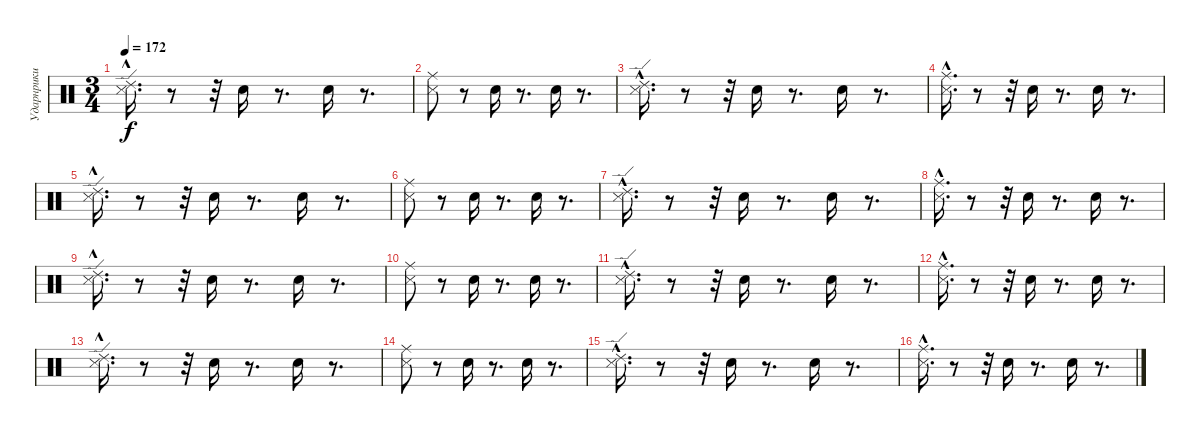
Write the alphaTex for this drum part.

\track ("Ударнрики" "Ударнрики") {instrument percussion}
\staff {score}
\articulation defaults
\ts (3 4)
\tempo 172
\clef neutral
\ks c
("Ride (edge) 2" "Metronome (hit)"{hac}).16{d dy f} r.8 r.32 "Electric Snare (hit)".16 r.8{d} "Electric Snare (hit)".16 r.8{d} |
("Ride (middle)" "Metronome (hit)").8 r.8 "Electric Snare (hit)".16 r.8{d} "Electric Snare (hit)".16 r.8{d} |
("Ride (edge) 2"{hac} "Metronome (hit)"{hac}).16{d} r.8 r.32 "Electric Snare (hit)".16 r.8{d} "Electric Snare (hit)".16 r.8{d} |
("Ride (middle)" "Metronome (hit)"{hac}).16{d} r.8 r.32 "Electric Snare (hit)".16 r.8{d} "Electric Snare (hit)".16 r.8{d} |
("Ride (edge) 2" "Metronome (hit)"{hac}).16{d} r.8 r.32 "Electric Snare (hit)".16 r.8{d} "Electric Snare (hit)".16 r.8{d} |
("Ride (middle)" "Metronome (hit)").8 r.8 "Electric Snare (hit)".16 r.8{d} "Electric Snare (hit)".16 r.8{d} |
("Ride (edge) 2"{hac} "Metronome (hit)"{hac}).16{d} r.8 r.32 "Electric Snare (hit)".16 r.8{d} "Electric Snare (hit)".16 r.8{d} |
("Ride (middle)" "Metronome (hit)"{hac}).16{d} r.8 r.32 "Electric Snare (hit)".16 r.8{d} "Electric Snare (hit)".16 r.8{d} |
("Ride (edge) 2" "Metronome (hit)"{hac}).16{d} r.8 r.32 "Electric Snare (hit)".16 r.8{d} "Electric Snare (hit)".16 r.8{d} |
("Ride (middle)" "Metronome (hit)").8 r.8 "Electric Snare (hit)".16 r.8{d} "Electric Snare (hit)".16 r.8{d} |
("Ride (edge) 2"{hac} "Metronome (hit)"{hac}).16{d} r.8 r.32 "Electric Snare (hit)".16 r.8{d} "Electric Snare (hit)".16 r.8{d} |
("Ride (middle)" "Metronome (hit)"{hac}).16{d} r.8 r.32 "Electric Snare (hit)".16 r.8{d} "Electric Snare (hit)".16 r.8{d} |
("Ride (edge) 2" "Metronome (hit)"{hac}).16{d} r.8 r.32 "Electric Snare (hit)".16 r.8{d} "Electric Snare (hit)".16 r.8{d} |
("Ride (middle)" "Metronome (hit)").8 r.8 "Electric Snare (hit)".16 r.8{d} "Electric Snare (hit)".16 r.8{d} |
("Ride (edge) 2"{hac} "Metronome (hit)"{hac}).16{d} r.8 r.32 "Electric Snare (hit)".16 r.8{d} "Electric Snare (hit)".16 r.8{d} |
("Ride (middle)" "Metronome (hit)"{hac}).16{d} r.8 r.32 "Electric Snare (hit)".16 r.8{d} "Electric Snare (hit)".16 r.8{d}
